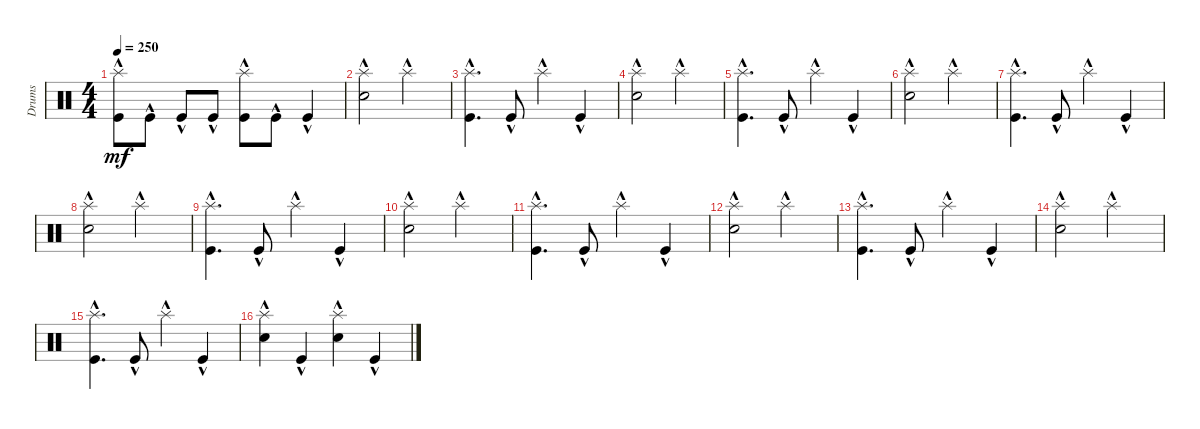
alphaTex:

\track ("Drums" "Drums") {instrument percussion}
\staff {score}
\articulation defaults
\ts (4 4)
\tempo 250
\clef neutral
\ks c
("Kick (hit)"{hac} "Splash (hit)"{hac}).8{dy mf} "Kick (hit)"{hac}.8 "Kick (hit)"{hac}.8 "Kick (hit)"{hac}.8 ("Kick (hit)"{hac} "Splash (hit)"{hac}).8 "Kick (hit)"{hac}.8 "Kick (hit)"{hac}.4 |
("Snare (hit) 2"{hac} "Splash (hit)"{hac}).2 "Splash (hit)"{hac}.2 |
("Kick (hit)"{hac} "Splash (hit)"{hac}).4{d} "Kick (hit)"{hac}.8 "Splash (hit)"{hac}.4 "Kick (hit)"{hac}.4 |
("Snare (hit) 2"{hac} "Splash (hit)"{hac}).2 "Splash (hit)"{hac}.2 |
("Kick (hit)"{hac} "Splash (hit)"{hac}).4{d} "Kick (hit)"{hac}.8 "Splash (hit)"{hac}.4 "Kick (hit)"{hac}.4 |
("Snare (hit) 2"{hac} "Splash (hit)"{hac}).2 "Splash (hit)"{hac}.2 |
("Kick (hit)"{hac} "Splash (hit)"{hac}).4{d} "Kick (hit)"{hac}.8 "Splash (hit)"{hac}.4 "Kick (hit)"{hac}.4 |
("Snare (hit) 2"{hac} "Splash (hit)"{hac}).2 "Splash (hit)"{hac}.2 |
("Kick (hit)"{hac} "Splash (hit)"{hac}).4{d} "Kick (hit)"{hac}.8 "Splash (hit)"{hac}.4 "Kick (hit)"{hac}.4 |
("Snare (hit) 2"{hac} "Splash (hit)"{hac}).2 "Splash (hit)"{hac}.2 |
("Kick (hit)"{hac} "Splash (hit)"{hac}).4{d} "Kick (hit)"{hac}.8 "Splash (hit)"{hac}.4 "Kick (hit)"{hac}.4 |
("Snare (hit) 2"{hac} "Splash (hit)"{hac}).2 "Splash (hit)"{hac}.2 |
("Kick (hit)"{hac} "Splash (hit)"{hac}).4{d} "Kick (hit)"{hac}.8 "Splash (hit)"{hac}.4 "Kick (hit)"{hac}.4 |
("Snare (hit) 2"{hac} "Splash (hit)"{hac}).2 "Splash (hit)"{hac}.2 |
("Kick (hit)"{hac} "Splash (hit)"{hac}).4{d} "Kick (hit)"{hac}.8 "Splash (hit)"{hac}.4 "Kick (hit)"{hac}.4 |
("Snare (hit) 2"{hac} "Splash (hit)"{hac}).4 "Kick (hit)"{hac}.4 ("Splash (hit)"{hac} "Snare (hit) 2"{hac}).4 "Kick (hit)"{hac}.4
